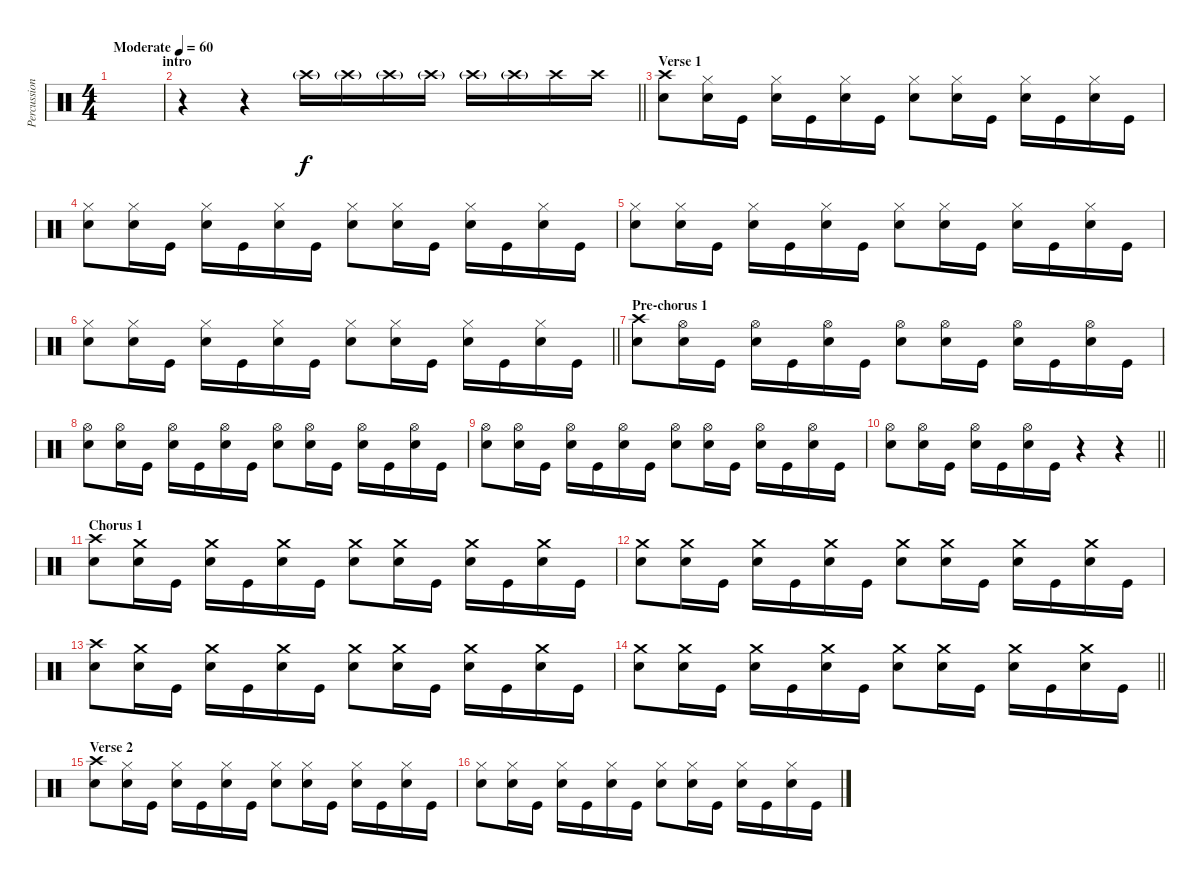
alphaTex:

\track ("Percussions" "Percussion") {instrument percussion}
\staff {score}
\articulation defaults
\ts (4 4)
\section ("" "              intro")
\tempo (60 "Moderate")
\clef neutral
\ks c
|
\barLineRight lightlight
r.4 r.4 "Crash high (hit)"{g}.16 "Crash high (hit)"{g}.16 "Crash high (hit)"{g}.16 "Crash high (hit)"{g}.16 "Crash high (hit)"{g}.16 "Crash high (hit)"{g}.16 "Crash high (hit)".16{dy f} "Crash high (hit)".16 |
\section ("" "Verse 1")
("Snare (hit) 2" "Crash high (hit)").8 ("Snare (hit) 2" "Hi-Hat (closed)").16 "Kick (hit)".16 ("Snare (hit) 2" "Hi-Hat (closed)").16 "Kick (hit)".16 ("Snare (hit) 2" "Hi-Hat (closed)").16 "Kick (hit)".16 ("Snare (hit) 2" "Hi-Hat (closed)").8 ("Snare (hit) 2" "Hi-Hat (closed)").16 "Kick (hit)".16 ("Snare (hit) 2" "Hi-Hat (closed)").16 "Kick (hit)".16 ("Snare (hit) 2" "Hi-Hat (closed)").16 "Kick (hit)".16 |
("Snare (hit) 2" "Hi-Hat (closed)").8 ("Snare (hit) 2" "Hi-Hat (closed)").16 "Kick (hit)".16 ("Snare (hit) 2" "Hi-Hat (closed)").16 "Kick (hit)".16 ("Snare (hit) 2" "Hi-Hat (closed)").16 "Kick (hit)".16 ("Snare (hit) 2" "Hi-Hat (closed)").8 ("Snare (hit) 2" "Hi-Hat (closed)").16 "Kick (hit)".16 ("Snare (hit) 2" "Hi-Hat (closed)").16 "Kick (hit)".16 ("Snare (hit) 2" "Hi-Hat (closed)").16 "Kick (hit)".16 |
("Snare (hit) 2" "Hi-Hat (closed)").8 ("Snare (hit) 2" "Hi-Hat (closed)").16 "Kick (hit)".16 ("Snare (hit) 2" "Hi-Hat (closed)").16 "Kick (hit)".16 ("Snare (hit) 2" "Hi-Hat (closed)").16 "Kick (hit)".16 ("Snare (hit) 2" "Hi-Hat (closed)").8 ("Snare (hit) 2" "Hi-Hat (closed)").16 "Kick (hit)".16 ("Snare (hit) 2" "Hi-Hat (closed)").16 "Kick (hit)".16 ("Snare (hit) 2" "Hi-Hat (closed)").16 "Kick (hit)".16 |
\barLineRight lightlight
("Snare (hit) 2" "Hi-Hat (closed)").8 ("Snare (hit) 2" "Hi-Hat (closed)").16 "Kick (hit)".16 ("Snare (hit) 2" "Hi-Hat (closed)").16 "Kick (hit)".16 ("Snare (hit) 2" "Hi-Hat (closed)").16 "Kick (hit)".16 ("Snare (hit) 2" "Hi-Hat (closed)").8 ("Snare (hit) 2" "Hi-Hat (closed)").16 "Kick (hit)".16 ("Snare (hit) 2" "Hi-Hat (closed)").16 "Kick (hit)".16 ("Snare (hit) 2" "Hi-Hat (closed)").16 "Kick (hit)".16 |
\section ("" "Pre-chorus 1")
("Snare (hit) 2" "Crash high (hit)").8 ("Snare (hit) 2" "Hi-Hat (open)").16 "Kick (hit)".16 ("Snare (hit) 2" "Hi-Hat (open)").16 "Kick (hit)".16 ("Snare (hit) 2" "Hi-Hat (open)").16 "Kick (hit)".16 ("Snare (hit) 2" "Hi-Hat (open)").8 ("Snare (hit) 2" "Hi-Hat (open)").16 "Kick (hit)".16 ("Snare (hit) 2" "Hi-Hat (open)").16 "Kick (hit)".16 ("Snare (hit) 2" "Hi-Hat (open)").16 "Kick (hit)".16 |
("Snare (hit) 2" "Hi-Hat (open)").8 ("Snare (hit) 2" "Hi-Hat (open)").16 "Kick (hit)".16 ("Snare (hit) 2" "Hi-Hat (open)").16 "Kick (hit)".16 ("Snare (hit) 2" "Hi-Hat (open)").16 "Kick (hit)".16 ("Snare (hit) 2" "Hi-Hat (open)").8 ("Snare (hit) 2" "Hi-Hat (open)").16 "Kick (hit)".16 ("Snare (hit) 2" "Hi-Hat (open)").16 "Kick (hit)".16 ("Snare (hit) 2" "Hi-Hat (open)").16 "Kick (hit)".16 |
("Snare (hit) 2" "Hi-Hat (open)").8 ("Snare (hit) 2" "Hi-Hat (open)").16 "Kick (hit)".16 ("Snare (hit) 2" "Hi-Hat (open)").16 "Kick (hit)".16 ("Snare (hit) 2" "Hi-Hat (open)").16 "Kick (hit)".16 ("Snare (hit) 2" "Hi-Hat (open)").8 ("Snare (hit) 2" "Hi-Hat (open)").16 "Kick (hit)".16 ("Snare (hit) 2" "Hi-Hat (open)").16 "Kick (hit)".16 ("Snare (hit) 2" "Hi-Hat (open)").16 "Kick (hit)".16 |
\barLineRight lightlight
("Snare (hit) 2" "Hi-Hat (open)").8 ("Snare (hit) 2" "Hi-Hat (open)").16 "Kick (hit)".16 ("Snare (hit) 2" "Hi-Hat (open)").16 "Kick (hit)".16 ("Snare (hit) 2" "Hi-Hat (open)").16 "Kick (hit)".16 r.4 r.4 |
\section ("" "Chorus 1")
("Snare (hit) 2" "Crash high (hit)").8 ("Snare (hit) 2" "Crash medium (hit)").16 "Kick (hit)".16 ("Snare (hit) 2" "Crash medium (hit)").16 "Kick (hit)".16 ("Snare (hit) 2" "Crash medium (hit)").16 "Kick (hit)".16 ("Snare (hit) 2" "Crash medium (hit)").8 ("Snare (hit) 2" "Crash medium (hit)").16 "Kick (hit)".16 ("Snare (hit) 2" "Crash medium (hit)").16 "Kick (hit)".16 ("Snare (hit) 2" "Crash medium (hit)").16 "Kick (hit)".16 |
("Snare (hit) 2" "Crash medium (hit)").8 ("Snare (hit) 2" "Crash medium (hit)").16 "Kick (hit)".16 ("Snare (hit) 2" "Crash medium (hit)").16 "Kick (hit)".16 ("Snare (hit) 2" "Crash medium (hit)").16 "Kick (hit)".16 ("Snare (hit) 2" "Crash medium (hit)").8 ("Snare (hit) 2" "Crash medium (hit)").16 "Kick (hit)".16 ("Snare (hit) 2" "Crash medium (hit)").16 "Kick (hit)".16 ("Snare (hit) 2" "Crash medium (hit)").16 "Kick (hit)".16 |
("Snare (hit) 2" "Crash high (hit)").8 ("Snare (hit) 2" "Crash medium (hit)").16 "Kick (hit)".16 ("Snare (hit) 2" "Crash medium (hit)").16 "Kick (hit)".16 ("Snare (hit) 2" "Crash medium (hit)").16 "Kick (hit)".16 ("Snare (hit) 2" "Crash medium (hit)").8 ("Snare (hit) 2" "Crash medium (hit)").16 "Kick (hit)".16 ("Snare (hit) 2" "Crash medium (hit)").16 "Kick (hit)".16 ("Snare (hit) 2" "Crash medium (hit)").16 "Kick (hit)".16 |
\barLineRight lightlight
("Snare (hit) 2" "Crash medium (hit)").8 ("Snare (hit) 2" "Crash medium (hit)").16 "Kick (hit)".16 ("Snare (hit) 2" "Crash medium (hit)").16 "Kick (hit)".16 ("Snare (hit) 2" "Crash medium (hit)").16 "Kick (hit)".16 ("Snare (hit) 2" "Crash medium (hit)").8 ("Snare (hit) 2" "Crash medium (hit)").16 "Kick (hit)".16 ("Snare (hit) 2" "Crash medium (hit)").16 "Kick (hit)".16 ("Snare (hit) 2" "Crash medium (hit)").16 "Kick (hit)".16 |
\section ("" "Verse 2")
("Snare (hit) 2" "Crash high (hit)").8 ("Snare (hit) 2" "Hi-Hat (closed)").16 "Kick (hit)".16 ("Snare (hit) 2" "Hi-Hat (closed)").16 "Kick (hit)".16 ("Snare (hit) 2" "Hi-Hat (closed)").16 "Kick (hit)".16 ("Snare (hit) 2" "Hi-Hat (closed)").8 ("Snare (hit) 2" "Hi-Hat (closed)").16 "Kick (hit)".16 ("Snare (hit) 2" "Hi-Hat (closed)").16 "Kick (hit)".16 ("Snare (hit) 2" "Hi-Hat (closed)").16 "Kick (hit)".16 |
("Snare (hit) 2" "Hi-Hat (closed)").8 ("Snare (hit) 2" "Hi-Hat (closed)").16 "Kick (hit)".16 ("Snare (hit) 2" "Hi-Hat (closed)").16 "Kick (hit)".16 ("Snare (hit) 2" "Hi-Hat (closed)").16 "Kick (hit)".16 ("Snare (hit) 2" "Hi-Hat (closed)").8 ("Snare (hit) 2" "Hi-Hat (closed)").16 "Kick (hit)".16 ("Snare (hit) 2" "Hi-Hat (closed)").16 "Kick (hit)".16 ("Snare (hit) 2" "Hi-Hat (closed)").16 "Kick (hit)".16
